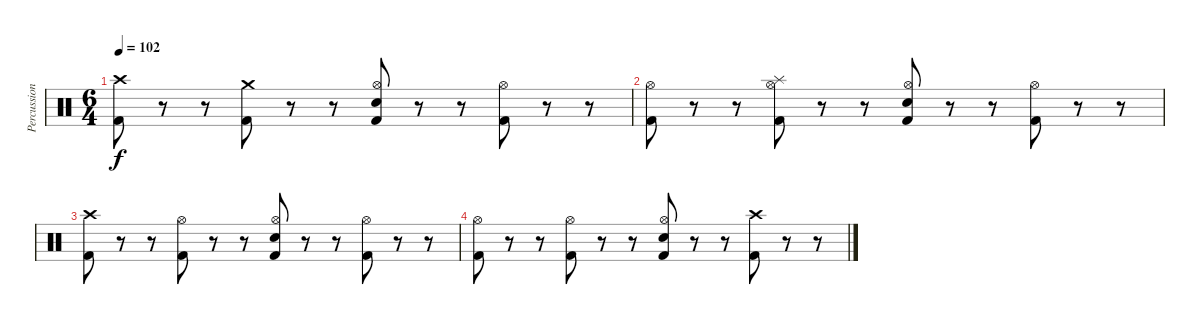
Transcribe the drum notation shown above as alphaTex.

\track ("Percussion" "Percussion") {instrument percussion}
\staff {score}
\articulation defaults
\ts (6 4)
\tempo 102
\clef neutral
\ks c
("Crash high (hit)" "Kick (hit) 2").8{dy f} r.8 r.8 ("Crash medium (hit)" "Kick (hit) 2").8 r.8 r.8 ("Hi-Hat (open)" "Snare (hit) 2" "Kick (hit) 2").8 r.8 r.8 ("Hi-Hat (open)" "Kick (hit) 2").8 r.8 r.8 |
("Hi-Hat (open)" "Kick (hit) 2").8 r.8 r.8 ("Hi-Hat (open)" "Splash (hit)" "Kick (hit) 2").8 r.8 r.8 ("Hi-Hat (open)" "Snare (hit) 2" "Kick (hit) 2").8 r.8 r.8 ("Hi-Hat (open)" "Kick (hit) 2").8 r.8 r.8 |
("Crash high (hit)" "Kick (hit) 2").8 r.8 r.8 ("Hi-Hat (open)" "Kick (hit) 2").8 r.8 r.8 ("Hi-Hat (open)" "Snare (hit) 2" "Kick (hit) 2").8 r.8 r.8 ("Hi-Hat (open)" "Kick (hit) 2").8 r.8 r.8 |
("Hi-Hat (open)" "Kick (hit) 2").8 r.8 r.8 ("Hi-Hat (open)" "Kick (hit) 2").8 r.8 r.8 ("Hi-Hat (open)" "Snare (hit) 2" "Kick (hit) 2").8 r.8 r.8 ("Crash high (hit)" "Kick (hit) 2").8 r.8 r.8
